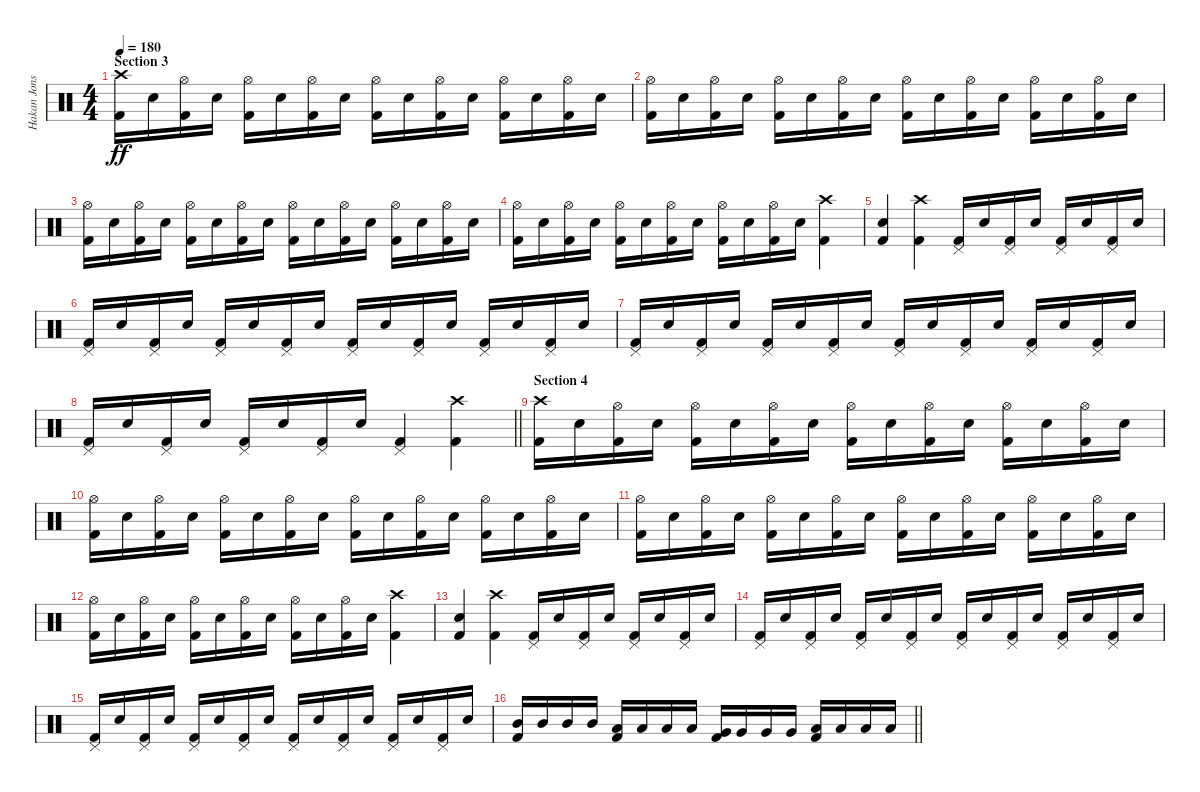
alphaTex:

\track ("Hakan Jonsson" "Hakan Jons") {instrument percussion}
\staff {score}
\articulation defaults
\ts (4 4)
\section ("" "Section 3")
\tempo 180
\clef neutral
\ks c
("Crash high (hit)" "Kick (hit) 2").16{dy ff} "Electric Snare (hit)".16 ("Hi-Hat (open)" "Kick (hit) 2").16 "Electric Snare (hit)".16 ("Hi-Hat (open)" "Kick (hit) 2").16 "Electric Snare (hit)".16 ("Hi-Hat (open)" "Kick (hit) 2").16 "Electric Snare (hit)".16 ("Hi-Hat (open)" "Kick (hit) 2").16 "Electric Snare (hit)".16 ("Hi-Hat (open)" "Kick (hit) 2").16 "Electric Snare (hit)".16 ("Hi-Hat (open)" "Kick (hit) 2").16 "Electric Snare (hit)".16 ("Hi-Hat (open)" "Kick (hit) 2").16 "Electric Snare (hit)".16 |
("Hi-Hat (open)" "Kick (hit) 2").16 "Electric Snare (hit)".16 ("Hi-Hat (open)" "Kick (hit) 2").16 "Electric Snare (hit)".16 ("Hi-Hat (open)" "Kick (hit) 2").16 "Electric Snare (hit)".16 ("Hi-Hat (open)" "Kick (hit) 2").16 "Electric Snare (hit)".16 ("Hi-Hat (open)" "Kick (hit) 2").16 "Electric Snare (hit)".16 ("Hi-Hat (open)" "Kick (hit) 2").16 "Electric Snare (hit)".16 ("Hi-Hat (open)" "Kick (hit) 2").16 "Electric Snare (hit)".16 ("Hi-Hat (open)" "Kick (hit) 2").16 "Electric Snare (hit)".16 |
("Hi-Hat (open)" "Kick (hit) 2").16 "Electric Snare (hit)".16 ("Hi-Hat (open)" "Kick (hit) 2").16 "Electric Snare (hit)".16 ("Hi-Hat (open)" "Kick (hit) 2").16 "Electric Snare (hit)".16 ("Hi-Hat (open)" "Kick (hit) 2").16 "Electric Snare (hit)".16 ("Hi-Hat (open)" "Kick (hit) 2").16 "Electric Snare (hit)".16 ("Hi-Hat (open)" "Kick (hit) 2").16 "Electric Snare (hit)".16 ("Hi-Hat (open)" "Kick (hit) 2").16 "Electric Snare (hit)".16 ("Hi-Hat (open)" "Kick (hit) 2").16 "Electric Snare (hit)".16 |
("Hi-Hat (open)" "Kick (hit) 2").16 "Electric Snare (hit)".16 ("Hi-Hat (open)" "Kick (hit) 2").16 "Electric Snare (hit)".16 ("Hi-Hat (open)" "Kick (hit) 2").16 "Electric Snare (hit)".16 ("Hi-Hat (open)" "Kick (hit) 2").16 "Electric Snare (hit)".16 ("Hi-Hat (open)" "Kick (hit) 2").16 "Electric Snare (hit)".16 ("Hi-Hat (open)" "Kick (hit) 2").16 "Electric Snare (hit)".16 ("Crash high (hit)" "Kick (hit) 2").4 |
("Electric Snare (hit)" "Kick (hit) 2").4 ("Crash high (hit)" "Kick (hit) 2").4 ("Pedal Hi-Hat (hit)" "Kick (hit) 2").16 "Electric Snare (hit)".16 ("Pedal Hi-Hat (hit)" "Kick (hit) 2").16 "Electric Snare (hit)".16 ("Pedal Hi-Hat (hit)" "Kick (hit) 2").16 "Electric Snare (hit)".16 ("Pedal Hi-Hat (hit)" "Kick (hit) 2").16 "Electric Snare (hit)".16 |
("Pedal Hi-Hat (hit)" "Kick (hit) 2").16 "Electric Snare (hit)".16 ("Pedal Hi-Hat (hit)" "Kick (hit) 2").16 "Electric Snare (hit)".16 ("Pedal Hi-Hat (hit)" "Kick (hit) 2").16 "Electric Snare (hit)".16 ("Pedal Hi-Hat (hit)" "Kick (hit) 2").16 "Electric Snare (hit)".16 ("Pedal Hi-Hat (hit)" "Kick (hit) 2").16 "Electric Snare (hit)".16 ("Pedal Hi-Hat (hit)" "Kick (hit) 2").16 "Electric Snare (hit)".16 ("Pedal Hi-Hat (hit)" "Kick (hit) 2").16 "Electric Snare (hit)".16 ("Pedal Hi-Hat (hit)" "Kick (hit) 2").16 "Electric Snare (hit)".16 |
("Pedal Hi-Hat (hit)" "Kick (hit) 2").16 "Electric Snare (hit)".16 ("Pedal Hi-Hat (hit)" "Kick (hit) 2").16 "Electric Snare (hit)".16 ("Pedal Hi-Hat (hit)" "Kick (hit) 2").16 "Electric Snare (hit)".16 ("Pedal Hi-Hat (hit)" "Kick (hit) 2").16 "Electric Snare (hit)".16 ("Pedal Hi-Hat (hit)" "Kick (hit) 2").16 "Electric Snare (hit)".16 ("Pedal Hi-Hat (hit)" "Kick (hit) 2").16 "Electric Snare (hit)".16 ("Pedal Hi-Hat (hit)" "Kick (hit) 2").16 "Electric Snare (hit)".16 ("Pedal Hi-Hat (hit)" "Kick (hit) 2").16 "Electric Snare (hit)".16 |
\barLineRight lightlight
("Pedal Hi-Hat (hit)" "Kick (hit) 2").16 "Electric Snare (hit)".16 ("Pedal Hi-Hat (hit)" "Kick (hit) 2").16 "Electric Snare (hit)".16 ("Pedal Hi-Hat (hit)" "Kick (hit) 2").16 "Electric Snare (hit)".16 ("Pedal Hi-Hat (hit)" "Kick (hit) 2").16 "Electric Snare (hit)".16 ("Pedal Hi-Hat (hit)" "Kick (hit) 2").4 ("Crash high (hit)" "Kick (hit) 2").4 |
\section ("" "Section 4")
("Crash high (hit)" "Kick (hit) 2").16 "Electric Snare (hit)".16 ("Hi-Hat (open)" "Kick (hit) 2").16 "Electric Snare (hit)".16 ("Hi-Hat (open)" "Kick (hit) 2").16 "Electric Snare (hit)".16 ("Hi-Hat (open)" "Kick (hit) 2").16 "Electric Snare (hit)".16 ("Hi-Hat (open)" "Kick (hit) 2").16 "Electric Snare (hit)".16 ("Hi-Hat (open)" "Kick (hit) 2").16 "Electric Snare (hit)".16 ("Hi-Hat (open)" "Kick (hit) 2").16 "Electric Snare (hit)".16 ("Hi-Hat (open)" "Kick (hit) 2").16 "Electric Snare (hit)".16 |
("Hi-Hat (open)" "Kick (hit) 2").16 "Electric Snare (hit)".16 ("Hi-Hat (open)" "Kick (hit) 2").16 "Electric Snare (hit)".16 ("Hi-Hat (open)" "Kick (hit) 2").16 "Electric Snare (hit)".16 ("Hi-Hat (open)" "Kick (hit) 2").16 "Electric Snare (hit)".16 ("Hi-Hat (open)" "Kick (hit) 2").16 "Electric Snare (hit)".16 ("Hi-Hat (open)" "Kick (hit) 2").16 "Electric Snare (hit)".16 ("Hi-Hat (open)" "Kick (hit) 2").16 "Electric Snare (hit)".16 ("Hi-Hat (open)" "Kick (hit) 2").16 "Electric Snare (hit)".16 |
("Hi-Hat (open)" "Kick (hit) 2").16 "Electric Snare (hit)".16 ("Hi-Hat (open)" "Kick (hit) 2").16 "Electric Snare (hit)".16 ("Hi-Hat (open)" "Kick (hit) 2").16 "Electric Snare (hit)".16 ("Hi-Hat (open)" "Kick (hit) 2").16 "Electric Snare (hit)".16 ("Hi-Hat (open)" "Kick (hit) 2").16 "Electric Snare (hit)".16 ("Hi-Hat (open)" "Kick (hit) 2").16 "Electric Snare (hit)".16 ("Hi-Hat (open)" "Kick (hit) 2").16 "Electric Snare (hit)".16 ("Hi-Hat (open)" "Kick (hit) 2").16 "Electric Snare (hit)".16 |
("Hi-Hat (open)" "Kick (hit) 2").16 "Electric Snare (hit)".16 ("Hi-Hat (open)" "Kick (hit) 2").16 "Electric Snare (hit)".16 ("Hi-Hat (open)" "Kick (hit) 2").16 "Electric Snare (hit)".16 ("Hi-Hat (open)" "Kick (hit) 2").16 "Electric Snare (hit)".16 ("Hi-Hat (open)" "Kick (hit) 2").16 "Electric Snare (hit)".16 ("Hi-Hat (open)" "Kick (hit) 2").16 "Electric Snare (hit)".16 ("Crash high (hit)" "Kick (hit) 2").4 |
("Electric Snare (hit)" "Kick (hit) 2").4 ("Crash high (hit)" "Kick (hit) 2").4 ("Pedal Hi-Hat (hit)" "Kick (hit) 2").16 "Electric Snare (hit)".16 ("Pedal Hi-Hat (hit)" "Kick (hit) 2").16 "Electric Snare (hit)".16 ("Pedal Hi-Hat (hit)" "Kick (hit) 2").16 "Electric Snare (hit)".16 ("Pedal Hi-Hat (hit)" "Kick (hit) 2").16 "Electric Snare (hit)".16 |
("Pedal Hi-Hat (hit)" "Kick (hit) 2").16 "Electric Snare (hit)".16 ("Pedal Hi-Hat (hit)" "Kick (hit) 2").16 "Electric Snare (hit)".16 ("Pedal Hi-Hat (hit)" "Kick (hit) 2").16 "Electric Snare (hit)".16 ("Pedal Hi-Hat (hit)" "Kick (hit) 2").16 "Electric Snare (hit)".16 ("Pedal Hi-Hat (hit)" "Kick (hit) 2").16 "Electric Snare (hit)".16 ("Pedal Hi-Hat (hit)" "Kick (hit) 2").16 "Electric Snare (hit)".16 ("Pedal Hi-Hat (hit)" "Kick (hit) 2").16 "Electric Snare (hit)".16 ("Pedal Hi-Hat (hit)" "Kick (hit) 2").16 "Electric Snare (hit)".16 |
("Pedal Hi-Hat (hit)" "Kick (hit) 2").16 "Electric Snare (hit)".16 ("Pedal Hi-Hat (hit)" "Kick (hit) 2").16 "Electric Snare (hit)".16 ("Pedal Hi-Hat (hit)" "Kick (hit) 2").16 "Electric Snare (hit)".16 ("Pedal Hi-Hat (hit)" "Kick (hit) 2").16 "Electric Snare (hit)".16 ("Pedal Hi-Hat (hit)" "Kick (hit) 2").16 "Electric Snare (hit)".16 ("Pedal Hi-Hat (hit)" "Kick (hit) 2").16 "Electric Snare (hit)".16 ("Pedal Hi-Hat (hit)" "Kick (hit) 2").16 "Electric Snare (hit)".16 ("Pedal Hi-Hat (hit)" "Kick (hit) 2").16 "Electric Snare (hit)".16 |
\barLineRight lightlight
("Mid Tom (hit)" "Kick (hit) 2").16 "Mid Tom (hit)".16 "Mid Tom (hit)".16 "Mid Tom (hit)".16 ("Low Tom (hit)" "Kick (hit) 2").16 "Low Tom (hit)".16 "Low Tom (hit)".16 "Low Tom (hit)".16 ("Very Low Tom (hit)" "Kick (hit) 2").16 "Very Low Tom (hit)".16 "Very Low Tom (hit)".16 "Very Low Tom (hit)".16 ("Low Floor Tom (hit)" "Kick (hit) 2").16 "Low Floor Tom (hit)".16 "Low Floor Tom (hit)".16 "Low Floor Tom (hit)".16
